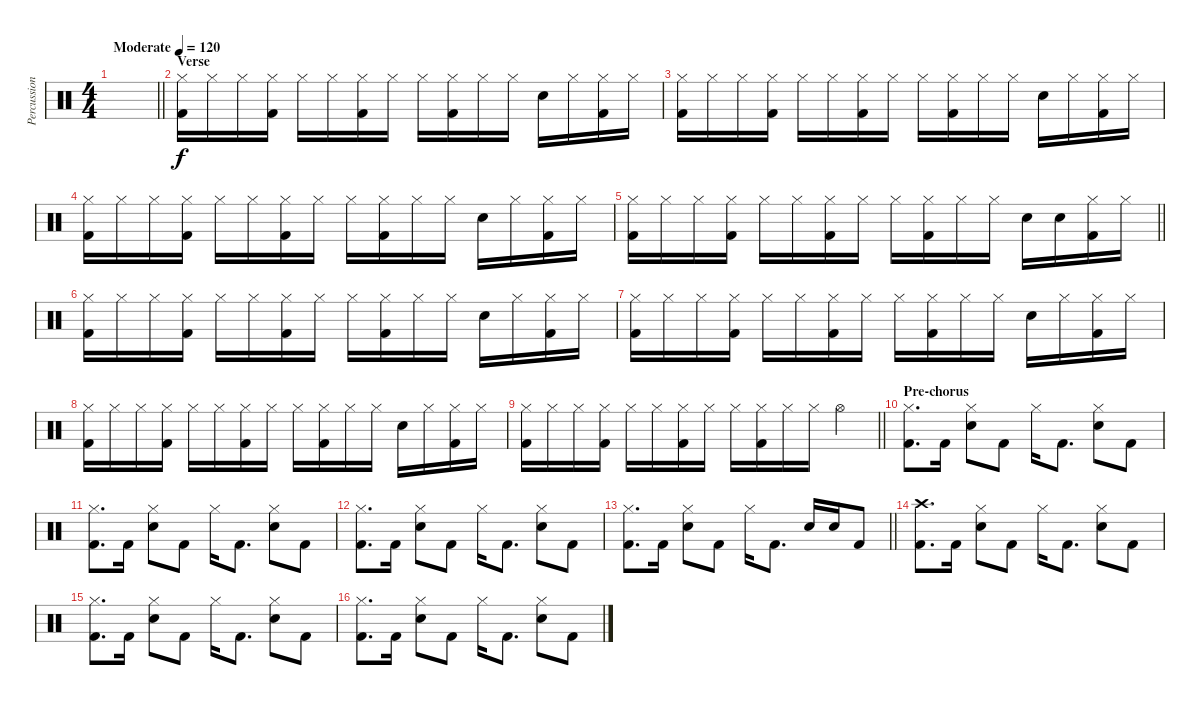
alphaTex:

\track ("Percussion" "Percussion") {instrument percussion}
\staff {score}
\articulation defaults
\ts (4 4)
\tempo (120 "Moderate")
\clef neutral
\barLineRight lightlight
\ks c
|
\section ("" "Verse")
("Hi-Hat (closed)" "Kick (hit) 2").16 "Hi-Hat (closed)".16 "Hi-Hat (closed)".16 ("Hi-Hat (closed)" "Kick (hit) 2").16 "Hi-Hat (closed)".16 "Hi-Hat (closed)".16 ("Hi-Hat (closed)" "Kick (hit) 2").16 "Hi-Hat (closed)".16 "Hi-Hat (closed)".16 ("Hi-Hat (closed)" "Kick (hit) 2").16 "Hi-Hat (closed)".16 "Hi-Hat (closed)".16 "Snare (hit) 2".16 "Hi-Hat (closed)".16 ("Hi-Hat (closed)" "Kick (hit) 2").16 "Hi-Hat (closed)".16 |
("Hi-Hat (closed)" "Kick (hit) 2").16 "Hi-Hat (closed)".16 "Hi-Hat (closed)".16 ("Hi-Hat (closed)" "Kick (hit) 2").16 "Hi-Hat (closed)".16 "Hi-Hat (closed)".16 ("Hi-Hat (closed)" "Kick (hit) 2").16 "Hi-Hat (closed)".16 "Hi-Hat (closed)".16 ("Hi-Hat (closed)" "Kick (hit) 2").16 "Hi-Hat (closed)".16 "Hi-Hat (closed)".16 "Snare (hit) 2".16 "Hi-Hat (closed)".16 ("Hi-Hat (closed)" "Kick (hit) 2").16 "Hi-Hat (closed)".16 |
("Hi-Hat (closed)" "Kick (hit) 2").16 "Hi-Hat (closed)".16 "Hi-Hat (closed)".16 ("Hi-Hat (closed)" "Kick (hit) 2").16 "Hi-Hat (closed)".16 "Hi-Hat (closed)".16 ("Hi-Hat (closed)" "Kick (hit) 2").16 "Hi-Hat (closed)".16 "Hi-Hat (closed)".16 ("Hi-Hat (closed)" "Kick (hit) 2").16 "Hi-Hat (closed)".16 "Hi-Hat (closed)".16 "Snare (hit) 2".16 "Hi-Hat (closed)".16 ("Hi-Hat (closed)" "Kick (hit) 2").16 "Hi-Hat (closed)".16 |
\barLineRight lightlight
("Hi-Hat (closed)" "Kick (hit) 2").16 "Hi-Hat (closed)".16 "Hi-Hat (closed)".16 ("Hi-Hat (closed)" "Kick (hit) 2").16 "Hi-Hat (closed)".16 "Hi-Hat (closed)".16 ("Hi-Hat (closed)" "Kick (hit) 2").16 "Hi-Hat (closed)".16 "Hi-Hat (closed)".16 ("Hi-Hat (closed)" "Kick (hit) 2").16 "Hi-Hat (closed)".16 "Hi-Hat (closed)".16 "Snare (hit) 2".16 "Snare (hit) 2".16 ("Hi-Hat (closed)" "Kick (hit) 2").16 "Hi-Hat (closed)".16 |
("Hi-Hat (closed)" "Kick (hit) 2").16 "Hi-Hat (closed)".16 "Hi-Hat (closed)".16 ("Hi-Hat (closed)" "Kick (hit) 2").16 "Hi-Hat (closed)".16 "Hi-Hat (closed)".16 ("Hi-Hat (closed)" "Kick (hit) 2").16 "Hi-Hat (closed)".16 "Hi-Hat (closed)".16 ("Hi-Hat (closed)" "Kick (hit) 2").16 "Hi-Hat (closed)".16 "Hi-Hat (closed)".16 "Snare (hit) 2".16 "Hi-Hat (closed)".16 ("Hi-Hat (closed)" "Kick (hit) 2").16 "Hi-Hat (closed)".16 |
("Hi-Hat (closed)" "Kick (hit) 2").16 "Hi-Hat (closed)".16 "Hi-Hat (closed)".16 ("Hi-Hat (closed)" "Kick (hit) 2").16 "Hi-Hat (closed)".16 "Hi-Hat (closed)".16 ("Hi-Hat (closed)" "Kick (hit) 2").16 "Hi-Hat (closed)".16 "Hi-Hat (closed)".16 ("Hi-Hat (closed)" "Kick (hit) 2").16 "Hi-Hat (closed)".16 "Hi-Hat (closed)".16 "Snare (hit) 2".16 "Hi-Hat (closed)".16 ("Hi-Hat (closed)" "Kick (hit) 2").16 "Hi-Hat (closed)".16 |
("Hi-Hat (closed)" "Kick (hit) 2").16 "Hi-Hat (closed)".16 "Hi-Hat (closed)".16 ("Hi-Hat (closed)" "Kick (hit) 2").16 "Hi-Hat (closed)".16 "Hi-Hat (closed)".16 ("Hi-Hat (closed)" "Kick (hit) 2").16 "Hi-Hat (closed)".16 "Hi-Hat (closed)".16 ("Hi-Hat (closed)" "Kick (hit) 2").16 "Hi-Hat (closed)".16 "Hi-Hat (closed)".16 "Snare (hit) 2".16 "Hi-Hat (closed)".16 ("Hi-Hat (closed)" "Kick (hit) 2").16 "Hi-Hat (closed)".16 |
\barLineRight lightlight
("Hi-Hat (closed)" "Kick (hit) 2").16 "Hi-Hat (closed)".16 "Hi-Hat (closed)".16 ("Hi-Hat (closed)" "Kick (hit) 2").16 "Hi-Hat (closed)".16 "Hi-Hat (closed)".16 ("Hi-Hat (closed)" "Kick (hit) 2").16 "Hi-Hat (closed)".16 "Hi-Hat (closed)".16 ("Hi-Hat (closed)" "Kick (hit) 2").16 "Hi-Hat (closed)".16 "Hi-Hat (closed)".16 "Hi-Hat (open)".4 |
\section ("" "Pre-chorus")
("Hi-Hat (closed)" "Kick (hit) 2").8{d} "Kick (hit) 2".16 ("Hi-Hat (closed)" "Snare (hit) 2").8 "Kick (hit) 2".8 "Hi-Hat (closed)".16 "Kick (hit) 2".8{d} ("Hi-Hat (closed)" "Snare (hit) 2").8 "Kick (hit) 2".8 |
("Hi-Hat (closed)" "Kick (hit) 2").8{d} "Kick (hit) 2".16 ("Hi-Hat (closed)" "Snare (hit) 2").8 "Kick (hit) 2".8 "Hi-Hat (closed)".16 "Kick (hit) 2".8{d} ("Hi-Hat (closed)" "Snare (hit) 2").8 "Kick (hit) 2".8 |
("Hi-Hat (closed)" "Kick (hit) 2").8{d} "Kick (hit) 2".16 ("Hi-Hat (closed)" "Snare (hit) 2").8 "Kick (hit) 2".8 "Hi-Hat (closed)".16 "Kick (hit) 2".8{d} ("Hi-Hat (closed)" "Snare (hit) 2").8 "Kick (hit) 2".8 |
\barLineRight lightlight
("Hi-Hat (closed)" "Kick (hit) 2").8{d} "Kick (hit) 2".16 ("Hi-Hat (closed)" "Snare (hit) 2").8 "Kick (hit) 2".8 "Hi-Hat (closed)".16 "Kick (hit) 2".8{d} "Snare (hit) 2".16 "Snare (hit) 2".16 "Kick (hit) 2".8 |
("Crash high (hit)" "Kick (hit) 2").8{d} "Kick (hit) 2".16 ("Hi-Hat (closed)" "Snare (hit) 2").8 "Kick (hit) 2".8 "Hi-Hat (closed)".16 "Kick (hit) 2".8{d} ("Hi-Hat (closed)" "Snare (hit) 2").8 "Kick (hit) 2".8 |
("Hi-Hat (closed)" "Kick (hit) 2").8{d} "Kick (hit) 2".16 ("Hi-Hat (closed)" "Snare (hit) 2").8 "Kick (hit) 2".8 "Hi-Hat (closed)".16 "Kick (hit) 2".8{d} ("Hi-Hat (closed)" "Snare (hit) 2").8 "Kick (hit) 2".8 |
("Hi-Hat (closed)" "Kick (hit) 2").8{d} "Kick (hit) 2".16 ("Hi-Hat (closed)" "Snare (hit) 2").8 "Kick (hit) 2".8 "Hi-Hat (closed)".16 "Kick (hit) 2".8{d} ("Hi-Hat (closed)" "Snare (hit) 2").8 "Kick (hit) 2".8
